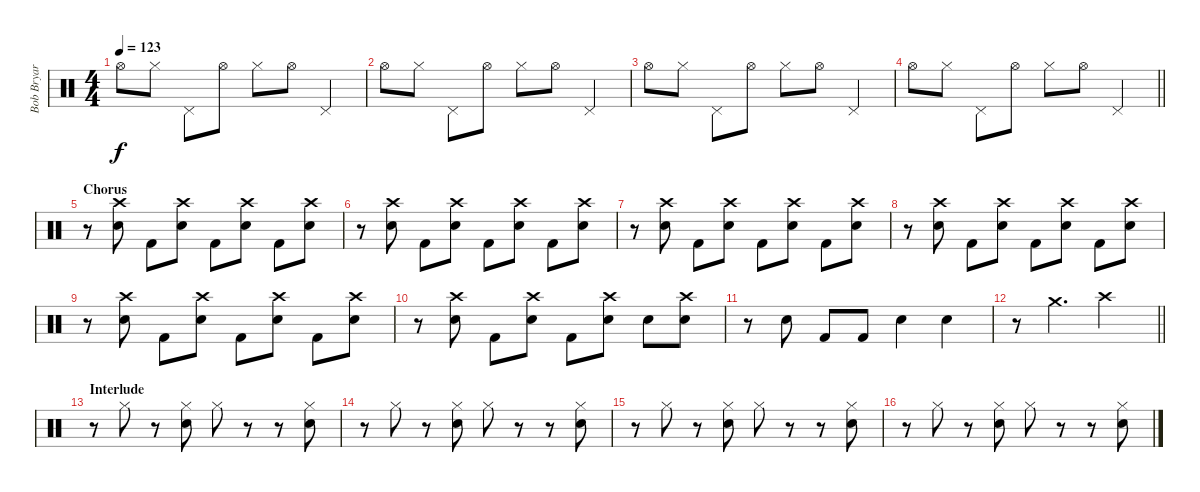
\track ("Bob Bryar" "Bob Bryar") {instrument percussion}
\staff {score}
\articulation defaults
\ts (4 4)
\tempo 123
\clef neutral
\ks c "Hi-Hat (open)".8{dy f} "Hi-Hat (closed)".8 "Pedal Hi-Hat (hit)".8 "Hi-Hat (open)".8 "Hi-Hat (closed)".8 "Hi-Hat (open)".8 "Pedal Hi-Hat (hit)".4
|
"Hi-Hat (open)".8 "Hi-Hat (closed)".8 "Pedal Hi-Hat (hit)".8 "Hi-Hat (open)".8 "Hi-Hat (closed)".8 "Hi-Hat (open)".8 "Pedal Hi-Hat (hit)".4 |
"Hi-Hat (open)".8 "Hi-Hat (closed)".8 "Pedal Hi-Hat (hit)".8 "Hi-Hat (open)".8 "Hi-Hat (closed)".8 "Hi-Hat (open)".8 "Pedal Hi-Hat (hit)".4 |
\barLineRight lightlight "Hi-Hat (open)".8 "Hi-Hat (closed)".8 "Pedal Hi-Hat (hit)".8 "Hi-Hat (open)".8 "Hi-Hat (closed)".8 "Hi-Hat (open)".8 "Pedal Hi-Hat (hit)".4
|
\section ("" "Chorus")
r.8 ("Crash high (hit)" "Electric Snare (hit)").8 "Kick (hit) 2".8 ("Crash high (hit)" "Electric Snare (hit)").8 "Kick (hit) 2".8 ("Crash high (hit)" "Electric Snare (hit)").8 "Kick (hit) 2".8 ("Crash high (hit)" "Electric Snare (hit)").8 |
r.8 ("Crash high (hit)" "Electric Snare (hit)").8 "Kick (hit) 2".8 ("Crash high (hit)" "Electric Snare (hit)").8 "Kick (hit) 2".8 ("Crash high (hit)" "Electric Snare (hit)").8 "Kick (hit) 2".8 ("Crash high (hit)" "Electric Snare (hit)").8 |
r.8 ("Crash high (hit)" "Electric Snare (hit)").8 "Kick (hit) 2".8 ("Crash high (hit)" "Electric Snare (hit)").8 "Kick (hit) 2".8 ("Crash high (hit)" "Electric Snare (hit)").8 "Kick (hit) 2".8 ("Crash high (hit)" "Electric Snare (hit)").8 |
r.8 ("Crash high (hit)" "Electric Snare (hit)").8 "Kick (hit) 2".8 ("Crash high (hit)" "Electric Snare (hit)").8 "Kick (hit) 2".8 ("Crash high (hit)" "Electric Snare (hit)").8 "Kick (hit) 2".8 ("Crash high (hit)" "Electric Snare (hit)").8 |
r.8 ("Crash high (hit)" "Electric Snare (hit)").8 "Kick (hit) 2".8 ("Crash high (hit)" "Electric Snare (hit)").8 "Kick (hit) 2".8 ("Crash high (hit)" "Electric Snare (hit)").8 "Kick (hit) 2".8 ("Crash high (hit)" "Electric Snare (hit)").8 |
r.8 ("Crash high (hit)" "Electric Snare (hit)").8 "Kick (hit) 2".8 ("Crash high (hit)" "Electric Snare (hit)").8 "Kick (hit) 2".8 ("Crash high (hit)" "Electric Snare (hit)").8 "Electric Snare (hit)".8 ("Crash high (hit)" "Electric Snare (hit)").8 |
r.8 "Electric Snare (hit)".8 "Kick (hit) 2".8 "Kick (hit) 2".8 "Electric Snare (hit)".4 "Electric Snare (hit)".4 |
\barLineRight lightlight
r.8 "Crash medium (hit)".4{d} "Crash high (hit)".2 |
\section ("" "Interlude")
r.8 "Hi-Hat (closed)".8 r.8 ("Hi-Hat (closed)" "Hand Clap (hit)").8 "Hi-Hat (closed)".8 r.8 r.8 ("Hi-Hat (closed)" "Hand Clap (hit)").8 |
r.8 "Hi-Hat (closed)".8 r.8 ("Hi-Hat (closed)" "Hand Clap (hit)").8 "Hi-Hat (closed)".8 r.8 r.8 ("Hi-Hat (closed)" "Hand Clap (hit)").8 |
r.8 "Hi-Hat (closed)".8 r.8 ("Hi-Hat (closed)" "Hand Clap (hit)").8 "Hi-Hat (closed)".8 r.8 r.8 ("Hi-Hat (closed)" "Hand Clap (hit)").8 |
r.8 "Hi-Hat (closed)".8 r.8 ("Hi-Hat (closed)" "Hand Clap (hit)").8 "Hi-Hat (closed)".8 r.8 r.8 ("Hi-Hat (closed)" "Hand Clap (hit)").8
